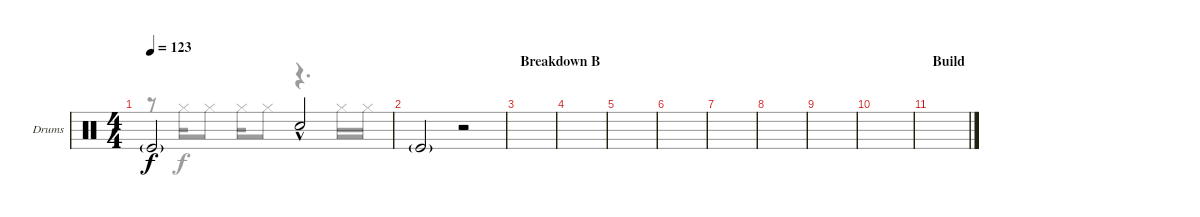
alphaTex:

\bracketExtendMode groupsimilarinstruments
\firstSystemTrackNameOrientation horizontal
\otherSystemsTrackNameOrientation horizontal
\track ("Drowned Drumkit" "Drums") {instrument percussion}
\staff {score}
\articulation defaults
\voice
\ts (4 4)
\tempo 123
\clef neutral
\ks aminor "Kick (hit)"{g}.2{dy f} "Snare (hit) 2"{hac}.2
|
"Kick (hit)"{g}.2 r.2 |
\section ("" "Breakdown B")
|
|
|
|
|
|
|
|
\section ("" "Build")
|
|
|
|
|
\voice
\clef neutral
\ottava regular
\simile none
\ks aminor
r.8{dy f} "Hi-Hat (closed)".16 "Hi-Hat (closed)".8 "Hi-Hat (closed)".16 "Hi-Hat (closed)".8 r.4{d} "Hi-Hat (closed)".16 "Hi-Hat (closed)".16 |
|
|
|
|
|
|
|
|
|
|
|
|
|
|
